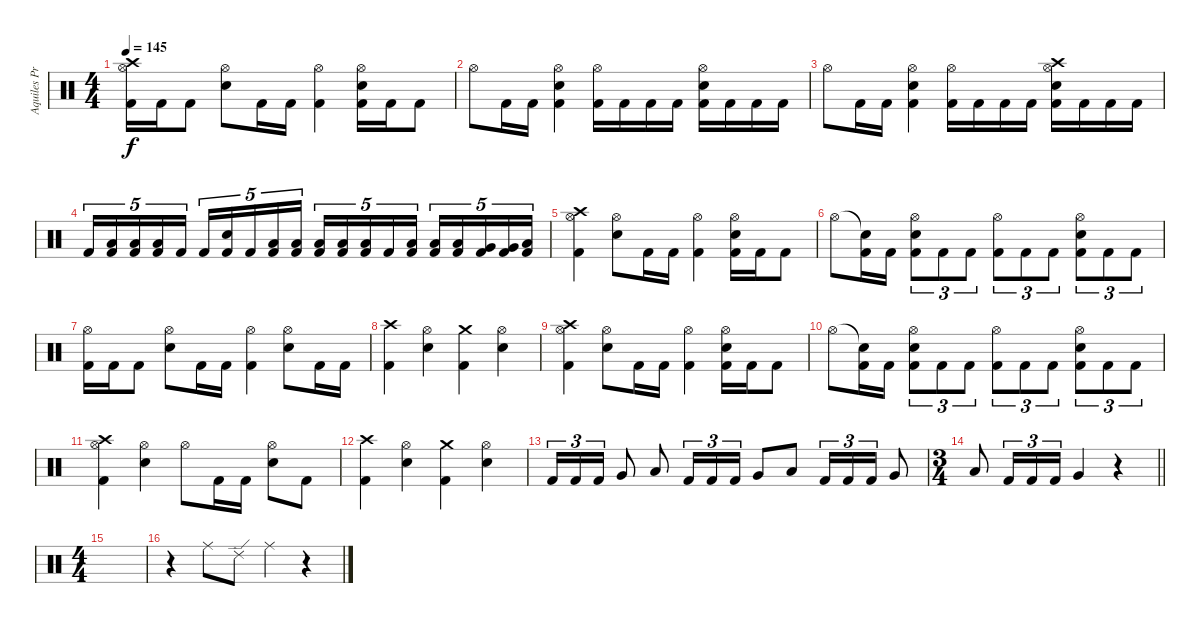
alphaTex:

\track ("Aquiles Priester" "Aquiles Pr") {instrument percussion}
\staff {score}
\articulation defaults
\ts (4 4)
\tempo 145
\clef neutral
\ks c
("Crash high (hit)" "Hi-Hat (open)" "Kick (hit) 2").16{dy f} "Kick (hit) 2".16 "Kick (hit) 2".8 ("Hi-Hat (open)" "Electric Snare (hit)").8 "Kick (hit) 2".16 "Kick (hit) 2".16 ("Hi-Hat (open)" "Kick (hit) 2").4 ("Hi-Hat (open)" "Electric Snare (hit)" "Kick (hit) 2").16 "Kick (hit) 2".16 "Kick (hit) 2".8 |
"Hi-Hat (open)".8 "Kick (hit) 2".16 "Kick (hit) 2".16 ("Hi-Hat (open)" "Electric Snare (hit)" "Kick (hit) 2").4 ("Hi-Hat (open)" "Kick (hit) 2").16 "Kick (hit) 2".16 "Kick (hit) 2".16 "Kick (hit) 2".16 ("Hi-Hat (open)" "Electric Snare (hit)" "Kick (hit) 2").16 "Kick (hit) 2".16 "Kick (hit) 2".16 "Kick (hit) 2".16 |
"Hi-Hat (open)".8 "Kick (hit) 2".16 "Kick (hit) 2".16 ("Hi-Hat (open)" "Electric Snare (hit)" "Kick (hit) 2").4 ("Hi-Hat (open)" "Kick (hit) 2").16 "Kick (hit) 2".16 "Kick (hit) 2".16 "Kick (hit) 2".16 ("Crash high (hit)" "Hi-Hat (open)" "Electric Snare (hit)" "Kick (hit) 2").16 "Kick (hit) 2".16 "Kick (hit) 2".16 "Kick (hit) 2".16 |
"Kick (hit) 2".16{tu (5 4)} ("Low Tom (hit)" "Kick (hit) 2").16{tu (5 4)} ("Low Tom (hit)" "Kick (hit) 2").16{tu (5 4)} ("Low Tom (hit)" "Kick (hit) 2").16{tu (5 4)} "Kick (hit) 2".16{tu (5 4)} "Kick (hit) 2".16{tu (5 4)} ("Electric Snare (hit)" "Kick (hit) 2").16{tu (5 4)} "Kick (hit) 2".16{tu (5 4)} ("Low Tom (hit)" "Kick (hit) 2").16{tu (5 4)} ("Low Tom (hit)" "Kick (hit) 2").16{tu (5 4)} ("Low Tom (hit)" "Kick (hit) 2").16{tu (5 4)} ("Low Tom (hit)" "Kick (hit) 2").16{tu (5 4)} ("Low Tom (hit)" "Kick (hit) 2").16{tu (5 4)} "Kick (hit) 2".16{tu (5 4)} ("Low Tom (hit)" "Kick (hit) 2").16{tu (5 4)} ("Low Tom (hit)" "Kick (hit) 2").16{tu (5 4)} ("Low Tom (hit)" "Kick (hit) 2").16{tu (5 4)} ("Very Low Tom (hit)" "Kick (hit) 2").16{tu (5 4)} ("Very Low Tom (hit)" "Kick (hit) 2").16{tu (5 4)} ("Low Floor Tom (hit)" "Kick (hit) 2").16{tu (5 4)} |
("Crash high (hit)" "Hi-Hat (open)" "Kick (hit) 2").4 ("Hi-Hat (open)" "Electric Snare (hit)").8 "Kick (hit) 2".16 "Kick (hit) 2".16 ("Hi-Hat (open)" "Kick (hit) 2").4 ("Hi-Hat (open)" "Electric Snare (hit)" "Kick (hit) 2").16 "Kick (hit) 2".16 "Kick (hit) 2".8 |
"Hi-Hat (open)".8 ("Snare (hit)"{t} "Kick (hit) 2").16 "Kick (hit) 2".16 ("Hi-Hat (open)" "Electric Snare (hit)" "Kick (hit) 2").8{tu (3 2)} "Kick (hit) 2".8{tu (3 2)} "Kick (hit) 2".8{tu (3 2)} ("Hi-Hat (open)" "Kick (hit) 2").8{tu (3 2)} "Kick (hit) 2".8{tu (3 2)} "Kick (hit) 2".8{tu (3 2)} ("Hi-Hat (open)" "Electric Snare (hit)" "Kick (hit) 2").8{tu (3 2)} "Kick (hit) 2".8{tu (3 2)} "Kick (hit) 2".8{tu (3 2)} |
("Hi-Hat (open)" "Kick (hit) 2").16 "Kick (hit) 2".16 "Kick (hit) 2".8 ("Hi-Hat (open)" "Electric Snare (hit)").8 "Kick (hit) 2".16 "Kick (hit) 2".16 ("Hi-Hat (open)" "Kick (hit) 2").4 ("Hi-Hat (open)" "Electric Snare (hit)").8 "Kick (hit) 2".16 "Kick (hit) 2".16 |
("Crash high (hit)" "Kick (hit) 2").4 ("Hi-Hat (open)" "Electric Snare (hit)").4 ("Crash medium (hit)" "Kick (hit) 2").4 ("Hi-Hat (open)" "Electric Snare (hit)").4 |
("Crash high (hit)" "Hi-Hat (open)" "Kick (hit) 2").4 ("Hi-Hat (open)" "Electric Snare (hit)").8 "Kick (hit) 2".16 "Kick (hit) 2".16 ("Hi-Hat (open)" "Kick (hit) 2").4 ("Hi-Hat (open)" "Electric Snare (hit)" "Kick (hit) 2").16 "Kick (hit) 2".16 "Kick (hit) 2".8 |
"Hi-Hat (open)".8 ("Snare (hit)"{t} "Kick (hit) 2").16 "Kick (hit) 2".16 ("Hi-Hat (open)" "Electric Snare (hit)" "Kick (hit) 2").8{tu (3 2)} "Kick (hit) 2".8{tu (3 2)} "Kick (hit) 2".8{tu (3 2)} ("Hi-Hat (open)" "Kick (hit) 2").8{tu (3 2)} "Kick (hit) 2".8{tu (3 2)} "Kick (hit) 2".8{tu (3 2)} ("Hi-Hat (open)" "Electric Snare (hit)" "Kick (hit) 2").8{tu (3 2)} "Kick (hit) 2".8{tu (3 2)} "Kick (hit) 2".8{tu (3 2)} |
("Crash high (hit)" "Hi-Hat (open)" "Kick (hit) 2").4 ("Hi-Hat (open)" "Electric Snare (hit)").4 "Hi-Hat (open)".8 "Kick (hit) 2".16 "Kick (hit) 2".16 ("Hi-Hat (open)" "Electric Snare (hit)").8 "Kick (hit) 2".8 |
("Crash high (hit)" "Kick (hit) 2").4 ("Hi-Hat (open)" "Electric Snare (hit)").4 ("Crash medium (hit)" "Kick (hit) 2").4 ("Hi-Hat (open)" "Electric Snare (hit)").4 |
"Kick (hit) 2".16{tu (3 2)} "Kick (hit) 2".16{tu (3 2)} "Kick (hit) 2".16{tu (3 2)} "Very Low Tom (hit)".8 "Low Tom (hit)".8 "Kick (hit) 2".16{tu (3 2)} "Kick (hit) 2".16{tu (3 2)} "Kick (hit) 2".16{tu (3 2)} "Very Low Tom (hit)".8 "Low Tom (hit)".8 "Kick (hit) 2".16{tu (3 2)} "Kick (hit) 2".16{tu (3 2)} "Kick (hit) 2".16{tu (3 2)} "Very Low Tom (hit)".8 |
\ts (3 4)
\barLineRight lightlight "Low Tom (hit)".8 "Kick (hit) 2".16{tu (3 2)} "Kick (hit) 2".16{tu (3 2)} "Kick (hit) 2".16{tu (3 2)} "Very Low Tom (hit)".4
r.4 |
\ts (4 4)
|
r.4 "Ride (middle)".8 "Ride (edge) 2".8 "Ride (middle)".4 r.4
